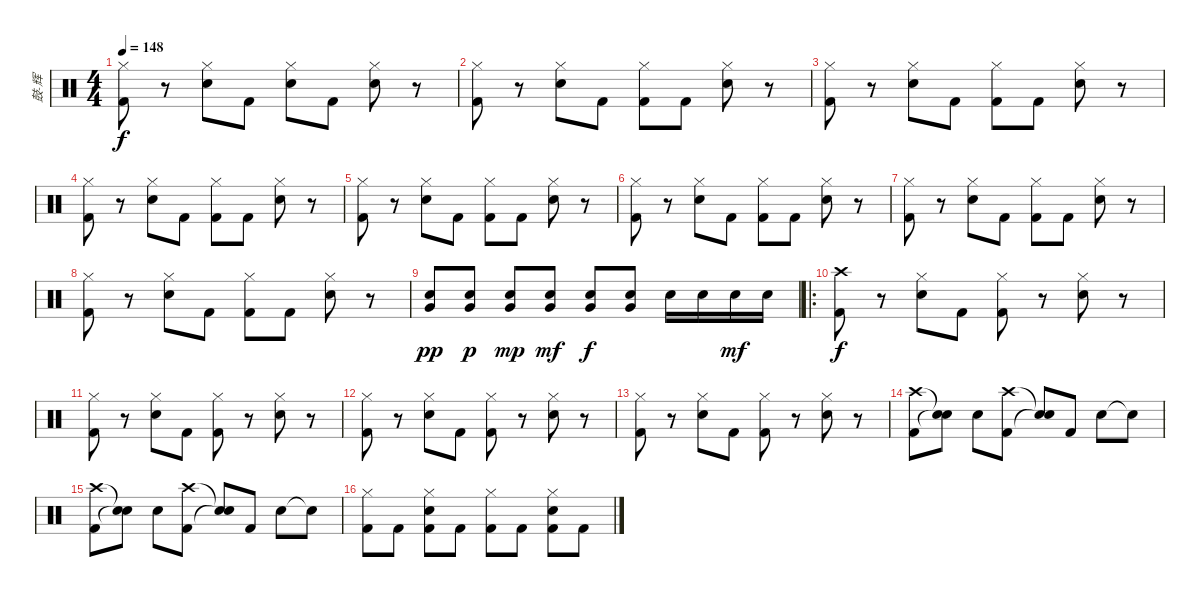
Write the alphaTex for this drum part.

\track ("鼓-辉" "鼓-辉") {instrument percussion}
\staff {score}
\articulation defaults
\ts (4 4)
\tempo 148
\clef neutral
\ks c
("Hi-Hat (closed)" "Kick (hit) 2").8{dy f} r.8 ("Hi-Hat (closed)" "Snare (hit) 2").8 "Kick (hit) 2".8 ("Hi-Hat (closed)" "Snare (hit) 2").8 "Kick (hit) 2".8 ("Hi-Hat (closed)" "Snare (hit) 2").8 r.8 |
("Hi-Hat (closed)" "Kick (hit) 2").8 r.8 ("Hi-Hat (closed)" "Snare (hit) 2").8 "Kick (hit) 2".8 ("Hi-Hat (closed)" "Kick (hit) 2").8 "Kick (hit) 2".8 ("Hi-Hat (closed)" "Snare (hit) 2").8 r.8 |
("Hi-Hat (closed)" "Kick (hit) 2").8 r.8 ("Hi-Hat (closed)" "Snare (hit) 2").8 "Kick (hit) 2".8 ("Hi-Hat (closed)" "Kick (hit) 2").8 "Kick (hit) 2".8 ("Hi-Hat (closed)" "Snare (hit) 2").8 r.8 |
("Hi-Hat (closed)" "Kick (hit) 2").8 r.8 ("Hi-Hat (closed)" "Snare (hit) 2").8 "Kick (hit) 2".8 ("Hi-Hat (closed)" "Kick (hit) 2").8 "Kick (hit) 2".8 ("Hi-Hat (closed)" "Snare (hit) 2").8 r.8 |
("Hi-Hat (closed)" "Kick (hit) 2").8 r.8 ("Hi-Hat (closed)" "Snare (hit) 2").8 "Kick (hit) 2".8 ("Hi-Hat (closed)" "Kick (hit) 2").8 "Kick (hit) 2".8 ("Hi-Hat (closed)" "Snare (hit) 2").8 r.8 |
("Hi-Hat (closed)" "Kick (hit) 2").8 r.8 ("Hi-Hat (closed)" "Snare (hit) 2").8 "Kick (hit) 2".8 ("Hi-Hat (closed)" "Kick (hit) 2").8 "Kick (hit) 2".8 ("Hi-Hat (closed)" "Snare (hit) 2").8 r.8 |
("Hi-Hat (closed)" "Kick (hit) 2").8 r.8 ("Hi-Hat (closed)" "Snare (hit) 2").8 "Kick (hit) 2".8 ("Hi-Hat (closed)" "Kick (hit) 2").8 "Kick (hit) 2".8 ("Hi-Hat (closed)" "Snare (hit) 2").8 r.8 |
("Hi-Hat (closed)" "Kick (hit) 2").8 r.8 ("Hi-Hat (closed)" "Snare (hit) 2").8 "Kick (hit) 2".8 ("Hi-Hat (closed)" "Kick (hit) 2").8 "Kick (hit) 2".8 ("Hi-Hat (closed)" "Snare (hit) 2").8 r.8 |
("Very Low Tom (hit)" "Snare (hit) 2").8{dy pp} ("Very Low Tom (hit)" "Snare (hit) 2").8{dy p} ("Very Low Tom (hit)" "Snare (hit) 2").8{dy mp} ("Very Low Tom (hit)" "Snare (hit) 2").8{dy mf} ("Very Low Tom (hit)" "Snare (hit) 2").8{dy f} ("Very Low Tom (hit)" "Snare (hit) 2").8 "Snare (hit) 2".16 "Snare (hit) 2".16 "Snare (hit) 2".16{dy mf} "Snare (hit) 2".16 |
\ro
("Crash high (hit)" "Kick (hit) 2").8{dy f} r.8 ("Hi-Hat (closed)" "Snare (hit) 2").8 "Kick (hit) 2".8 ("Hi-Hat (closed)" "Kick (hit) 2").8 r.8 ("Hi-Hat (closed)" "Snare (hit) 2").8 r.8 |
("Hi-Hat (closed)" "Kick (hit) 2").8 r.8 ("Hi-Hat (closed)" "Snare (hit) 2").8 "Kick (hit) 2".8 ("Hi-Hat (closed)" "Kick (hit) 2").8 r.8 ("Hi-Hat (closed)" "Snare (hit) 2").8 r.8 |
("Hi-Hat (closed)" "Kick (hit) 2").8 r.8 ("Hi-Hat (closed)" "Snare (hit) 2").8 "Kick (hit) 2".8 ("Hi-Hat (closed)" "Kick (hit) 2").8 r.8 ("Hi-Hat (closed)" "Snare (hit) 2").8 r.8 |
("Hi-Hat (closed)" "Kick (hit) 2").8 r.8 ("Hi-Hat (closed)" "Snare (hit) 2").8 "Kick (hit) 2".8 ("Hi-Hat (closed)" "Kick (hit) 2").8 r.8 ("Hi-Hat (closed)" "Snare (hit) 2").8 r.8 |
("Crash high (hit)" "Kick (hit) 2").8 ("Snare (hit)"{t} "Snare (hit)"{t}).8 "Snare (hit) 2".8 ("Crash high (hit)" "Kick (hit) 2").8 ("Snare (hit)"{t} "Snare (hit)"{t}).8 "Kick (hit) 2".8 "Snare (hit) 2".8 "Snare (hit)"{t}.8 |
("Crash high (hit)" "Kick (hit) 2").8 ("Snare (hit)"{t} "Snare (hit)"{t}).8 "Snare (hit) 2".8 ("Crash high (hit)" "Kick (hit) 2").8 ("Snare (hit)"{t} "Snare (hit)"{t}).8 "Kick (hit) 2".8 "Snare (hit) 2".8 "Snare (hit)"{t}.8 |
("Hi-Hat (closed)" "Kick (hit) 2").8 "Kick (hit) 2".8 ("Hi-Hat (closed)" "Snare (hit) 2" "Kick (hit) 2").8 "Kick (hit) 2".8 ("Hi-Hat (closed)" "Kick (hit) 2").8 "Kick (hit) 2".8 ("Hi-Hat (closed)" "Snare (hit) 2" "Kick (hit) 2").8 "Kick (hit) 2".8
